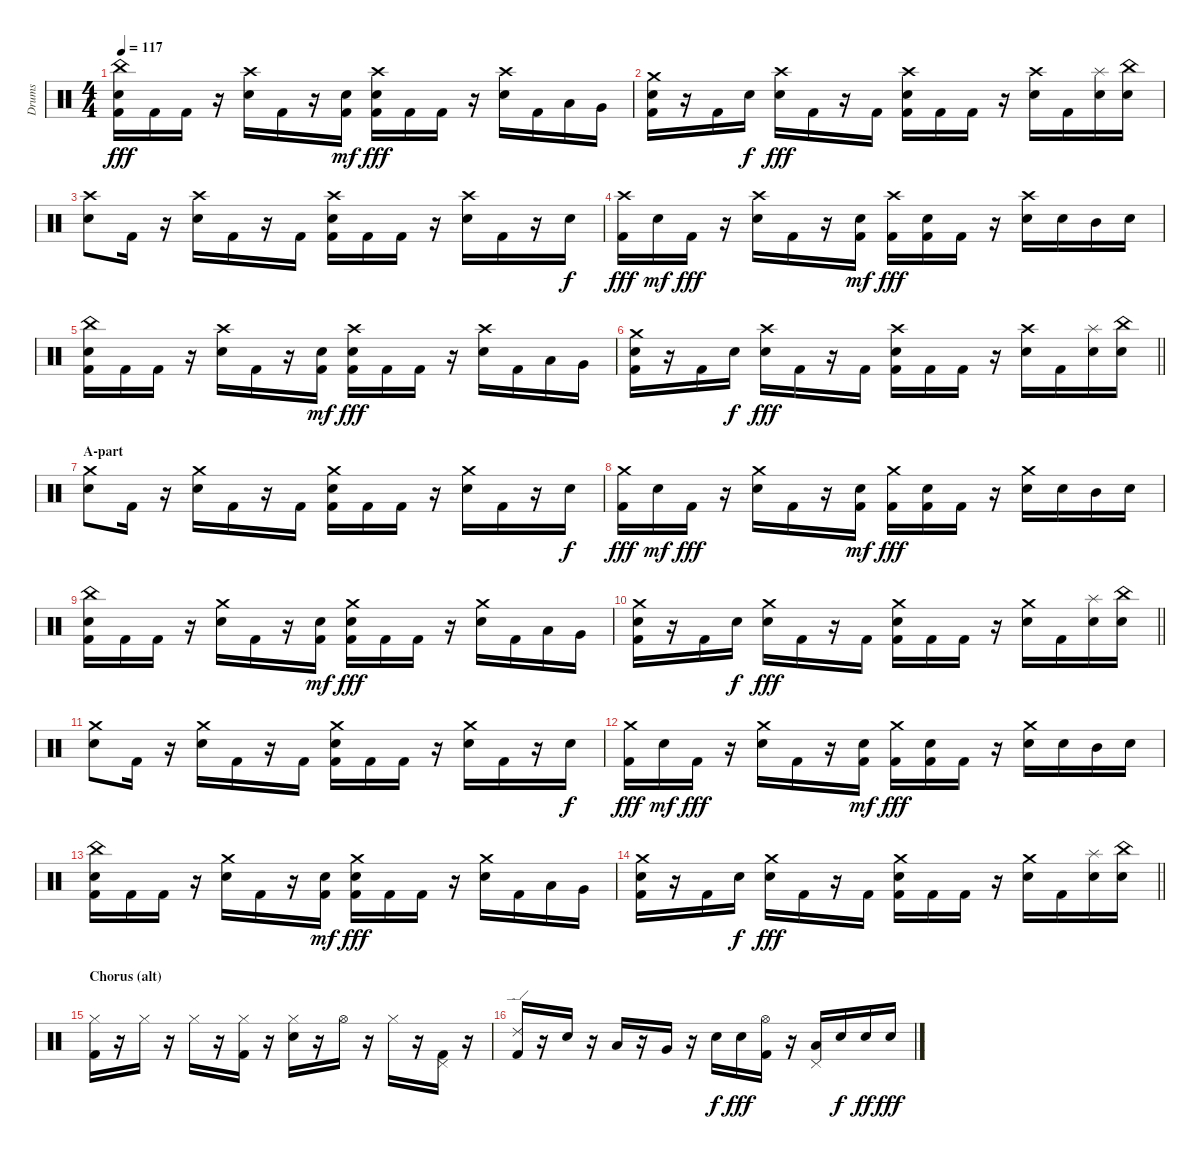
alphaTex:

\track ("Drums" "Drums") {instrument percussion}
\staff {score}
\articulation defaults
\ts (4 4)
\tempo 117
\clef neutral
\ks c
("Kick (hit) 2" "Snare (hit) 2" "China (hit)").16{dy fff} "Kick (hit) 2".16 "Kick (hit) 2".16 r.16 ("Snare (hit) 2" "Crash high (hit)").16 "Kick (hit) 2".16 r.16 ("Kick (hit) 2" "Snare (hit) 2").16{dy mf} ("Kick (hit) 2" "Snare (hit) 2" "Crash high (hit)").16{dy fff} "Kick (hit) 2".16 "Kick (hit) 2".16 r.16 ("Snare (hit) 2" "Crash high (hit)").16 "Kick (hit) 2".16 "Low Tom (hit)".16 "Very Low Tom (hit)".16 |
("Kick (hit) 2" "Snare (hit) 2" "Crash medium (hit)").16 r.16 "Kick (hit) 2".16 "Snare (hit) 2".16{dy f} ("Snare (hit) 2" "Crash high (hit)").16{dy fff} "Kick (hit) 2".16 r.16 "Kick (hit) 2".16 ("Kick (hit) 2" "Snare (hit) 2" "Crash high (hit)").16 "Kick (hit) 2".16 "Kick (hit) 2".16 r.16 ("Snare (hit) 2" "Crash high (hit)").16 "Kick (hit) 2".16 ("Snare (hit) 2" "Splash (hit)").16 ("Snare (hit) 2" "China (hit)").16 |
("Snare (hit) 2" "Crash high (hit)").8 "Kick (hit) 2".16 r.16 ("Snare (hit) 2" "Crash high (hit)").16 "Kick (hit) 2".16 r.16 "Kick (hit) 2".16 ("Kick (hit) 2" "Snare (hit) 2" "Crash high (hit)").16 "Kick (hit) 2".16 "Kick (hit) 2".16 r.16 ("Snare (hit) 2" "Crash high (hit)").16 "Kick (hit) 2".16 r.16 "Snare (hit) 2".16{dy f} |
("Kick (hit) 2" "Crash high (hit)").16{dy fff} "Snare (hit) 2".16{dy mf} "Kick (hit) 2".16{dy fff} r.16 ("Snare (hit) 2" "Crash high (hit)").16 "Kick (hit) 2".16 r.16 ("Kick (hit) 2" "Snare (hit) 2").16{dy mf} ("Kick (hit) 2" "Crash high (hit)").16{dy fff} ("Kick (hit) 2" "Snare (hit) 2").16 "Kick (hit) 2".16 r.16 ("Snare (hit) 2" "Crash high (hit)").16 "Snare (hit) 2".16 "Mid Tom (hit)".16 "Snare (hit) 2".16 |
("Kick (hit) 2" "Snare (hit) 2" "China (hit)").16 "Kick (hit) 2".16 "Kick (hit) 2".16 r.16 ("Snare (hit) 2" "Crash high (hit)").16 "Kick (hit) 2".16 r.16 ("Kick (hit) 2" "Snare (hit) 2").16{dy mf} ("Kick (hit) 2" "Snare (hit) 2" "Crash high (hit)").16{dy fff} "Kick (hit) 2".16 "Kick (hit) 2".16 r.16 ("Snare (hit) 2" "Crash high (hit)").16 "Kick (hit) 2".16 "Low Tom (hit)".16 "Very Low Tom (hit)".16 |
\barLineRight lightlight
("Kick (hit) 2" "Snare (hit) 2" "Crash medium (hit)").16 r.16 "Kick (hit) 2".16 "Snare (hit) 2".16{dy f} ("Snare (hit) 2" "Crash high (hit)").16{dy fff} "Kick (hit) 2".16 r.16 "Kick (hit) 2".16 ("Kick (hit) 2" "Snare (hit) 2" "Crash high (hit)").16 "Kick (hit) 2".16 "Kick (hit) 2".16 r.16 ("Snare (hit) 2" "Crash high (hit)").16 "Kick (hit) 2".16 ("Snare (hit) 2" "Splash (hit)").16 ("Snare (hit) 2" "China (hit)").16 |
\section ("" "A-part")
("Snare (hit) 2" "Crash medium (hit)").8 "Kick (hit) 2".16 r.16 ("Snare (hit) 2" "Crash medium (hit)").16 "Kick (hit) 2".16 r.16 "Kick (hit) 2".16 ("Kick (hit) 2" "Snare (hit) 2" "Crash medium (hit)").16 "Kick (hit) 2".16 "Kick (hit) 2".16 r.16 ("Snare (hit) 2" "Crash medium (hit)").16 "Kick (hit) 2".16 r.16 "Snare (hit) 2".16{dy f} |
("Kick (hit) 2" "Crash medium (hit)").16{dy fff} "Snare (hit) 2".16{dy mf} "Kick (hit) 2".16{dy fff} r.16 ("Snare (hit) 2" "Crash medium (hit)").16 "Kick (hit) 2".16 r.16 ("Kick (hit) 2" "Snare (hit) 2").16{dy mf} ("Kick (hit) 2" "Crash medium (hit)").16{dy fff} ("Kick (hit) 2" "Snare (hit) 2").16 "Kick (hit) 2".16 r.16 ("Snare (hit) 2" "Crash medium (hit)").16 "Snare (hit) 2".16 "Mid Tom (hit)".16 "Snare (hit) 2".16 |
("Kick (hit) 2" "Snare (hit) 2" "China (hit)").16 "Kick (hit) 2".16 "Kick (hit) 2".16 r.16 ("Snare (hit) 2" "Crash medium (hit)").16 "Kick (hit) 2".16 r.16 ("Kick (hit) 2" "Snare (hit) 2").16{dy mf} ("Kick (hit) 2" "Snare (hit) 2" "Crash medium (hit)").16{dy fff} "Kick (hit) 2".16 "Kick (hit) 2".16 r.16 ("Snare (hit) 2" "Crash medium (hit)").16 "Kick (hit) 2".16 "Low Tom (hit)".16 "Very Low Tom (hit)".16 |
\barLineRight lightlight
("Kick (hit) 2" "Snare (hit) 2" "Crash medium (hit)").16 r.16 "Kick (hit) 2".16 "Snare (hit) 2".16{dy f} ("Snare (hit) 2" "Crash medium (hit)").16{dy fff} "Kick (hit) 2".16 r.16 "Kick (hit) 2".16 ("Kick (hit) 2" "Snare (hit) 2" "Crash medium (hit)").16 "Kick (hit) 2".16 "Kick (hit) 2".16 r.16 ("Snare (hit) 2" "Crash medium (hit)").16 "Kick (hit) 2".16 ("Snare (hit) 2" "Splash (hit)").16 ("Snare (hit) 2" "China (hit)").16 |
("Snare (hit) 2" "Crash medium (hit)").8 "Kick (hit) 2".16 r.16 ("Snare (hit) 2" "Crash medium (hit)").16 "Kick (hit) 2".16 r.16 "Kick (hit) 2".16 ("Kick (hit) 2" "Snare (hit) 2" "Crash medium (hit)").16 "Kick (hit) 2".16 "Kick (hit) 2".16 r.16 ("Snare (hit) 2" "Crash medium (hit)").16 "Kick (hit) 2".16 r.16 "Snare (hit) 2".16{dy f} |
("Kick (hit) 2" "Crash medium (hit)").16{dy fff} "Snare (hit) 2".16{dy mf} "Kick (hit) 2".16{dy fff} r.16 ("Snare (hit) 2" "Crash medium (hit)").16 "Kick (hit) 2".16 r.16 ("Kick (hit) 2" "Snare (hit) 2").16{dy mf} ("Kick (hit) 2" "Crash medium (hit)").16{dy fff} ("Kick (hit) 2" "Snare (hit) 2").16 "Kick (hit) 2".16 r.16 ("Snare (hit) 2" "Crash medium (hit)").16 "Snare (hit) 2".16 "Mid Tom (hit)".16 "Snare (hit) 2".16 |
("Kick (hit) 2" "Snare (hit) 2" "China (hit)").16 "Kick (hit) 2".16 "Kick (hit) 2".16 r.16 ("Snare (hit) 2" "Crash medium (hit)").16 "Kick (hit) 2".16 r.16 ("Kick (hit) 2" "Snare (hit) 2").16{dy mf} ("Kick (hit) 2" "Snare (hit) 2" "Crash medium (hit)").16{dy fff} "Kick (hit) 2".16 "Kick (hit) 2".16 r.16 ("Snare (hit) 2" "Crash medium (hit)").16 "Kick (hit) 2".16 "Low Tom (hit)".16 "Very Low Tom (hit)".16 |
\barLineRight lightlight
("Kick (hit) 2" "Snare (hit) 2" "Crash medium (hit)").16 r.16 "Kick (hit) 2".16 "Snare (hit) 2".16{dy f} ("Snare (hit) 2" "Crash medium (hit)").16{dy fff} "Kick (hit) 2".16 r.16 "Kick (hit) 2".16 ("Kick (hit) 2" "Snare (hit) 2" "Crash medium (hit)").16 "Kick (hit) 2".16 "Kick (hit) 2".16 r.16 ("Snare (hit) 2" "Crash medium (hit)").16 "Kick (hit) 2".16 ("Snare (hit) 2" "Splash (hit)").16 ("Snare (hit) 2" "China (hit)").16 |
\section ("" "Chorus (alt)")
("Kick (hit) 2" "Hi-Hat (closed)").16 r.16 "Hi-Hat (closed)".16 r.16 "Hi-Hat (closed)".16 r.16 ("Kick (hit) 2" "Hi-Hat (closed)").16 r.16 ("Snare (hit) 2" "Hi-Hat (closed)").16 r.16 "Hi-Hat (open)".16 r.16 "Hi-Hat (closed)".16 r.16 ("Kick (hit) 2" "Pedal Hi-Hat (hit)").16 r.16 |
("Kick (hit) 2" "Ride (edge) 2").16 r.16 "Snare (hit) 2".16 r.16 "Low Tom (hit)".16 r.16 "Very Low Tom (hit)".16 r.16 "Snare (hit) 2".16{dy f} "Snare (hit) 2".16{dy fff} ("Kick (hit) 2" "Hi-Hat (open)").16 r.16 ("Pedal Hi-Hat (hit)" "Low Tom (hit)").16 "Snare (hit) 2".16{dy f} "Snare (hit) 2".16{dy ff} "Snare (hit) 2".16{dy fff}
